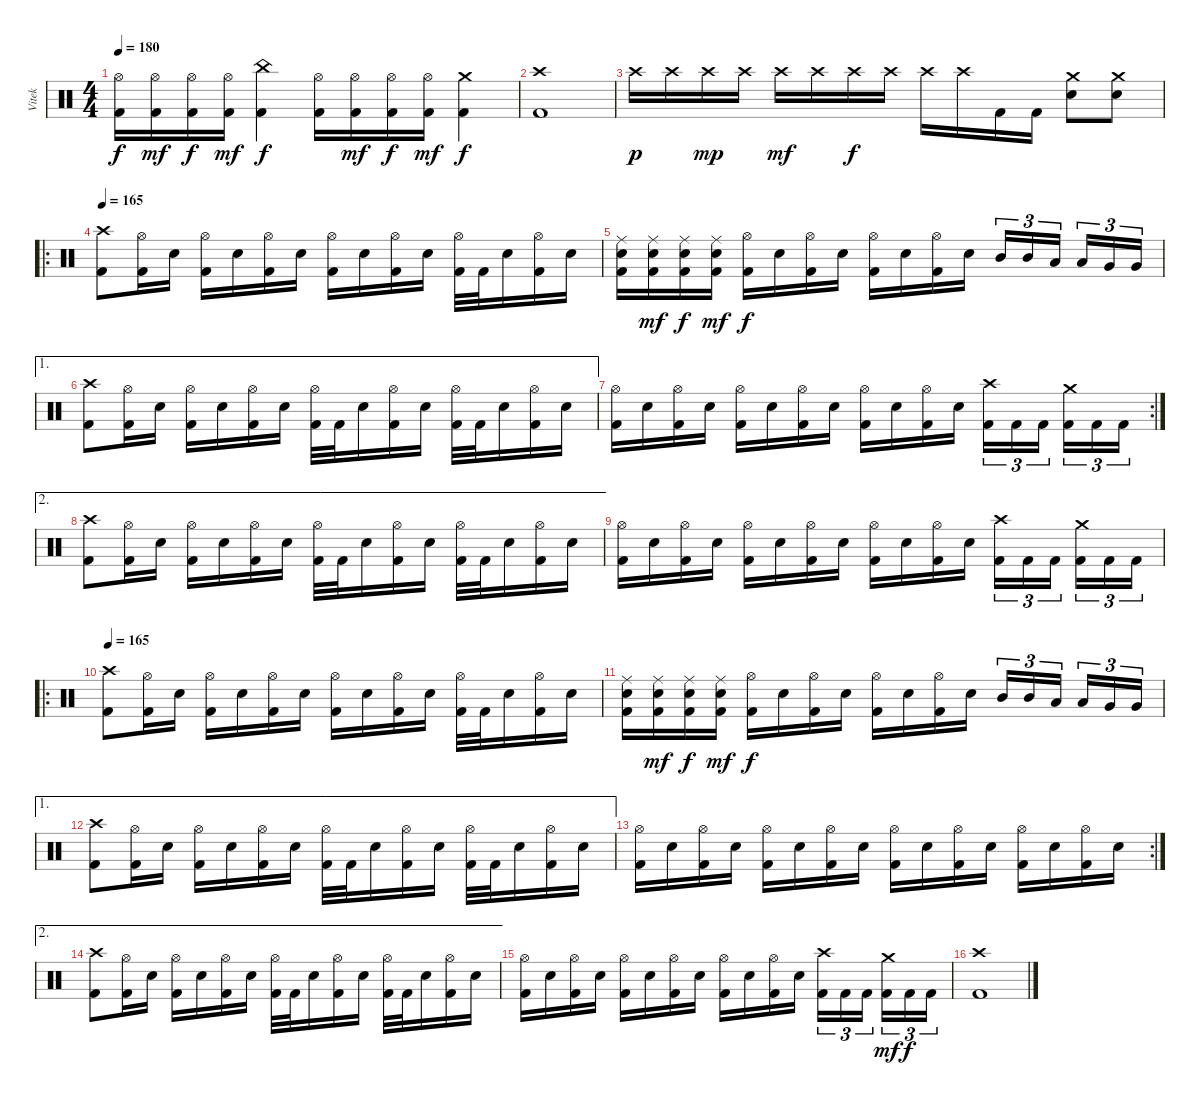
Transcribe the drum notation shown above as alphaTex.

\track ("Vitek" "Vitek") {instrument percussion}
\staff {score}
\articulation defaults
\ts (4 4)
\tempo 180
\clef neutral
\ks c
("Hi-Hat (open)" "Kick (hit) 2").16{dy f} ("Hi-Hat (open)" "Kick (hit) 2").16{dy mf} ("Hi-Hat (open)" "Kick (hit) 2").16{dy f} ("Hi-Hat (open)" "Kick (hit) 2").16{dy mf} ("China (hit)" "Kick (hit) 2").4{dy f} ("Hi-Hat (open)" "Kick (hit) 2").16 ("Hi-Hat (open)" "Kick (hit) 2").16{dy mf} ("Hi-Hat (open)" "Kick (hit) 2").16{dy f} ("Hi-Hat (open)" "Kick (hit) 2").16{dy mf} ("Crash medium (hit)" "Kick (hit) 2").4{dy f} |
("Crash high (hit)" "Kick (hit) 2").1 |
"Crash high (hit)".16{dy p} "Crash high (hit)".16 "Crash high (hit)".16{dy mp} "Crash high (hit)".16 "Crash high (hit)".16{dy mf} "Crash high (hit)".16 "Crash high (hit)".16{dy f} "Crash high (hit)".16 "Crash high (hit)".16 "Crash high (hit)".16 "Kick (hit) 2".16 "Kick (hit) 2".16 ("Crash medium (hit)" "Electric Snare (hit)").8 ("Crash medium (hit)" "Electric Snare (hit)").8 |
\ro
\tempo 165
("Crash high (hit)" "Kick (hit) 2").8 ("Hi-Hat (open)" "Kick (hit) 2").16 "Electric Snare (hit)".16 ("Hi-Hat (open)" "Kick (hit) 2").16 "Electric Snare (hit)".16 ("Hi-Hat (open)" "Kick (hit) 2").16 "Electric Snare (hit)".16 ("Hi-Hat (open)" "Kick (hit) 2").16 "Electric Snare (hit)".16 ("Hi-Hat (open)" "Kick (hit) 2").16 "Electric Snare (hit)".16 ("Hi-Hat (open)" "Kick (hit) 2").32 "Kick (hit) 2".32 "Electric Snare (hit)".16 ("Hi-Hat (open)" "Kick (hit) 2").16 "Electric Snare (hit)".16 |
("Ride (middle)" "Electric Snare (hit)" "Kick (hit) 2").16 ("Ride (middle)" "Electric Snare (hit)" "Kick (hit) 2").16{dy mf} ("Ride (middle)" "Electric Snare (hit)" "Kick (hit) 2").16{dy f} ("Ride (middle)" "Electric Snare (hit)" "Kick (hit) 2").16{dy mf} ("Hi-Hat (open)" "Kick (hit) 2").16{dy f} "Electric Snare (hit)".16 ("Hi-Hat (open)" "Kick (hit) 2").16 "Electric Snare (hit)".16 ("Hi-Hat (open)" "Kick (hit) 2").16 "Electric Snare (hit)".16 ("Hi-Hat (open)" "Kick (hit) 2").16 "Electric Snare (hit)".16 "Mid Tom (hit)".16{tu (3 2)} "Mid Tom (hit)".16{tu (3 2)} "Low Tom (hit)".16{tu (3 2) beam splitsecondary} "Low Tom (hit)".16{tu (3 2)} "Very Low Tom (hit)".16{tu (3 2)} "Very Low Tom (hit)".16{tu (3 2)} |
\ae 1
("Crash high (hit)" "Kick (hit) 2").8 ("Hi-Hat (open)" "Kick (hit) 2").16 "Electric Snare (hit)".16 ("Hi-Hat (open)" "Kick (hit) 2").16 "Electric Snare (hit)".16 ("Hi-Hat (open)" "Kick (hit) 2").16 "Electric Snare (hit)".16 ("Hi-Hat (open)" "Kick (hit) 2").32 "Kick (hit) 2".32 "Electric Snare (hit)".16 ("Hi-Hat (open)" "Kick (hit) 2").16 "Electric Snare (hit)".16 ("Hi-Hat (open)" "Kick (hit) 2").32 "Kick (hit) 2".32 "Electric Snare (hit)".16 ("Hi-Hat (open)" "Kick (hit) 2").16 "Electric Snare (hit)".16 |
\rc 2
("Hi-Hat (open)" "Kick (hit) 2").16 "Electric Snare (hit)".16 ("Hi-Hat (open)" "Kick (hit) 2").16 "Electric Snare (hit)".16 ("Hi-Hat (open)" "Kick (hit) 2").16 "Electric Snare (hit)".16 ("Hi-Hat (open)" "Kick (hit) 2").16 "Electric Snare (hit)".16 ("Hi-Hat (open)" "Kick (hit) 2").16 "Electric Snare (hit)".16 ("Hi-Hat (open)" "Kick (hit) 2").16 "Electric Snare (hit)".16 ("Crash high (hit)" "Kick (hit) 2").16{tu (3 2)} "Kick (hit) 2".16{tu (3 2)} "Kick (hit) 2".16{tu (3 2) beam splitsecondary} ("Crash medium (hit)" "Kick (hit) 2").16{tu (3 2)} "Kick (hit) 2".16{tu (3 2)} "Kick (hit) 2".16{tu (3 2)} |
\ae 2
("Crash high (hit)" "Kick (hit) 2").8 ("Hi-Hat (open)" "Kick (hit) 2").16 "Electric Snare (hit)".16 ("Hi-Hat (open)" "Kick (hit) 2").16 "Electric Snare (hit)".16 ("Hi-Hat (open)" "Kick (hit) 2").16 "Electric Snare (hit)".16 ("Hi-Hat (open)" "Kick (hit) 2").32 "Kick (hit) 2".32 "Electric Snare (hit)".16 ("Hi-Hat (open)" "Kick (hit) 2").16 "Electric Snare (hit)".16 ("Hi-Hat (open)" "Kick (hit) 2").32 "Kick (hit) 2".32 "Electric Snare (hit)".16 ("Hi-Hat (open)" "Kick (hit) 2").16 "Electric Snare (hit)".16 |
("Hi-Hat (open)" "Kick (hit) 2").16 "Electric Snare (hit)".16 ("Hi-Hat (open)" "Kick (hit) 2").16 "Electric Snare (hit)".16 ("Hi-Hat (open)" "Kick (hit) 2").16 "Electric Snare (hit)".16 ("Hi-Hat (open)" "Kick (hit) 2").16 "Electric Snare (hit)".16 ("Hi-Hat (open)" "Kick (hit) 2").16 "Electric Snare (hit)".16 ("Hi-Hat (open)" "Kick (hit) 2").16 "Electric Snare (hit)".16 ("Crash high (hit)" "Kick (hit) 2").16{tu (3 2)} "Kick (hit) 2".16{tu (3 2)} "Kick (hit) 2".16{tu (3 2) beam splitsecondary} ("Crash medium (hit)" "Kick (hit) 2").16{tu (3 2)} "Kick (hit) 2".16{tu (3 2)} "Kick (hit) 2".16{tu (3 2)} |
\ro
\tempo 165
("Crash high (hit)" "Kick (hit) 2").8 ("Hi-Hat (open)" "Kick (hit) 2").16 "Electric Snare (hit)".16 ("Hi-Hat (open)" "Kick (hit) 2").16 "Electric Snare (hit)".16 ("Hi-Hat (open)" "Kick (hit) 2").16 "Electric Snare (hit)".16 ("Hi-Hat (open)" "Kick (hit) 2").16 "Electric Snare (hit)".16 ("Hi-Hat (open)" "Kick (hit) 2").16 "Electric Snare (hit)".16 ("Hi-Hat (open)" "Kick (hit) 2").32 "Kick (hit) 2".32 "Electric Snare (hit)".16 ("Hi-Hat (open)" "Kick (hit) 2").16 "Electric Snare (hit)".16 |
("Ride (middle)" "Electric Snare (hit)" "Kick (hit) 2").16 ("Ride (middle)" "Electric Snare (hit)" "Kick (hit) 2").16{dy mf} ("Ride (middle)" "Electric Snare (hit)" "Kick (hit) 2").16{dy f} ("Ride (middle)" "Electric Snare (hit)" "Kick (hit) 2").16{dy mf} ("Hi-Hat (open)" "Kick (hit) 2").16{dy f} "Electric Snare (hit)".16 ("Hi-Hat (open)" "Kick (hit) 2").16 "Electric Snare (hit)".16 ("Hi-Hat (open)" "Kick (hit) 2").16 "Electric Snare (hit)".16 ("Hi-Hat (open)" "Kick (hit) 2").16 "Electric Snare (hit)".16 "Mid Tom (hit)".16{tu (3 2)} "Mid Tom (hit)".16{tu (3 2)} "Low Tom (hit)".16{tu (3 2) beam splitsecondary} "Low Tom (hit)".16{tu (3 2)} "Very Low Tom (hit)".16{tu (3 2)} "Very Low Tom (hit)".16{tu (3 2)} |
\ae 1
("Crash high (hit)" "Kick (hit) 2").8 ("Hi-Hat (open)" "Kick (hit) 2").16 "Electric Snare (hit)".16 ("Hi-Hat (open)" "Kick (hit) 2").16 "Electric Snare (hit)".16 ("Hi-Hat (open)" "Kick (hit) 2").16 "Electric Snare (hit)".16 ("Hi-Hat (open)" "Kick (hit) 2").32 "Kick (hit) 2".32 "Electric Snare (hit)".16 ("Hi-Hat (open)" "Kick (hit) 2").16 "Electric Snare (hit)".16 ("Hi-Hat (open)" "Kick (hit) 2").32 "Kick (hit) 2".32 "Electric Snare (hit)".16 ("Hi-Hat (open)" "Kick (hit) 2").16 "Electric Snare (hit)".16 |
\rc 2
("Hi-Hat (open)" "Kick (hit) 2").16 "Electric Snare (hit)".16 ("Hi-Hat (open)" "Kick (hit) 2").16 "Electric Snare (hit)".16 ("Hi-Hat (open)" "Kick (hit) 2").16 "Electric Snare (hit)".16 ("Hi-Hat (open)" "Kick (hit) 2").16 "Electric Snare (hit)".16 ("Hi-Hat (open)" "Kick (hit) 2").16 "Electric Snare (hit)".16 ("Hi-Hat (open)" "Kick (hit) 2").16 "Electric Snare (hit)".16 ("Hi-Hat (open)" "Kick (hit) 2").16 "Electric Snare (hit)".16 ("Hi-Hat (open)" "Kick (hit) 2").16 "Electric Snare (hit)".16 |
\ae 2
("Crash high (hit)" "Kick (hit) 2").8 ("Hi-Hat (open)" "Kick (hit) 2").16 "Electric Snare (hit)".16 ("Hi-Hat (open)" "Kick (hit) 2").16 "Electric Snare (hit)".16 ("Hi-Hat (open)" "Kick (hit) 2").16 "Electric Snare (hit)".16 ("Hi-Hat (open)" "Kick (hit) 2").32 "Kick (hit) 2".32 "Electric Snare (hit)".16 ("Hi-Hat (open)" "Kick (hit) 2").16 "Electric Snare (hit)".16 ("Hi-Hat (open)" "Kick (hit) 2").32 "Kick (hit) 2".32 "Electric Snare (hit)".16 ("Hi-Hat (open)" "Kick (hit) 2").16 "Electric Snare (hit)".16 |
("Hi-Hat (open)" "Kick (hit) 2").16 "Electric Snare (hit)".16 ("Hi-Hat (open)" "Kick (hit) 2").16 "Electric Snare (hit)".16 ("Hi-Hat (open)" "Kick (hit) 2").16 "Electric Snare (hit)".16 ("Hi-Hat (open)" "Kick (hit) 2").16 "Electric Snare (hit)".16 ("Hi-Hat (open)" "Kick (hit) 2").16 "Electric Snare (hit)".16 ("Hi-Hat (open)" "Kick (hit) 2").16 "Electric Snare (hit)".16 ("Crash high (hit)" "Kick (hit) 2").16{tu (3 2)} "Kick (hit) 2".16{tu (3 2)} "Kick (hit) 2".16{tu (3 2) beam splitsecondary} ("Crash medium (hit)" "Kick (hit) 2").16{tu (3 2) dy mf} "Kick (hit) 2".16{tu (3 2) dy f} "Kick (hit) 2".16{tu (3 2)} |
("Crash high (hit)" "Kick (hit) 2").1
